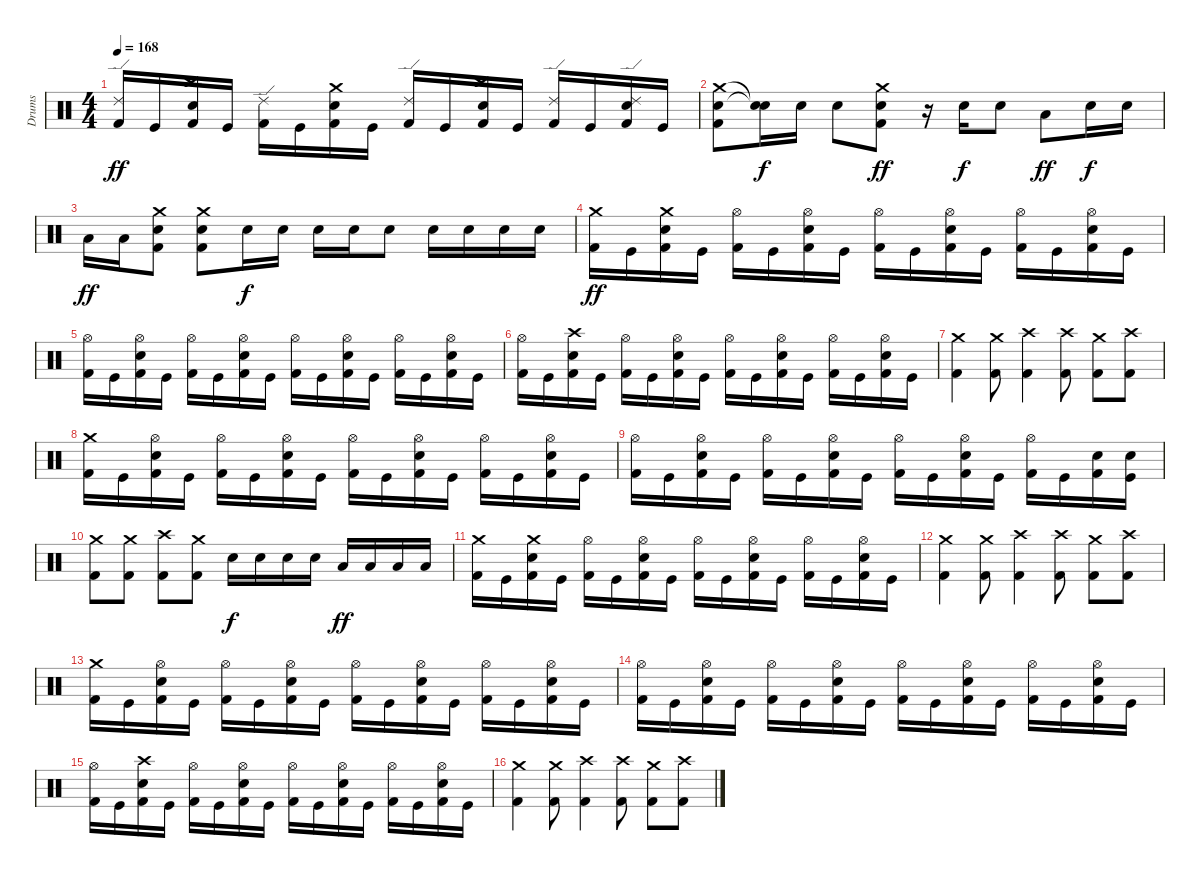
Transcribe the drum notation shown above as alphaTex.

\track ("Drums" "Drums") {instrument percussion}
\staff {score}
\articulation defaults
\ts (4 4)
\tempo 168
\clef neutral
\ks c
("Ride (edge) 2" "Kick (hit) 2").16{dy ff} "Kick (hit)".16 ("Crash high (hit)" "Electric Snare (hit)" "Kick (hit) 2").16 "Kick (hit)".16 ("Ride (edge) 2" "Kick (hit) 2").16 "Kick (hit)".16 ("Crash medium (hit)" "Electric Snare (hit)" "Kick (hit) 2").16 "Kick (hit)".16 ("Ride (edge) 2" "Kick (hit) 2").16 "Kick (hit)".16 ("Crash high (hit)" "Electric Snare (hit)" "Kick (hit) 2").16 "Kick (hit)".16 ("Ride (edge) 2" "Kick (hit) 2").16 "Kick (hit)".16 ("Ride (edge) 2" "Electric Snare (hit)" "Kick (hit) 2").16 "Kick (hit)".16 |
("Crash medium (hit)" "Electric Snare (hit)" "Kick (hit) 2").8 ("Snare (hit)"{t} "Snare (hit)"{t}).16{dy f} "Electric Snare (hit)".16 "Electric Snare (hit)".8 ("Crash medium (hit)" "Electric Snare (hit)" "Kick (hit) 2").8{dy ff} r.16 "Electric Snare (hit)".16{dy f} "Electric Snare (hit)".8 "Low Tom (hit)".8{dy ff} "Electric Snare (hit)".16{dy f} "Electric Snare (hit)".16 |
"Low Tom (hit)".16{dy ff} "Low Tom (hit)".16 ("Crash medium (hit)" "Electric Snare (hit)" "Kick (hit) 2").8 ("Crash medium (hit)" "Electric Snare (hit)" "Kick (hit) 2").8 "Electric Snare (hit)".16{dy f} "Electric Snare (hit)".16 "Electric Snare (hit)".16 "Electric Snare (hit)".16 "Electric Snare (hit)".8 "Electric Snare (hit)".16 "Electric Snare (hit)".16 "Electric Snare (hit)".16 "Electric Snare (hit)".16 |
("Crash medium (hit)" "Kick (hit) 2").16{dy ff} "Kick (hit)".16 ("Crash medium (hit)" "Electric Snare (hit)" "Kick (hit) 2").16 "Kick (hit)".16 ("Hi-Hat (open)" "Kick (hit) 2").16 "Kick (hit)".16 ("Hi-Hat (open)" "Electric Snare (hit)" "Kick (hit) 2").16 "Kick (hit)".16 ("Hi-Hat (open)" "Kick (hit) 2").16 "Kick (hit)".16 ("Hi-Hat (open)" "Electric Snare (hit)" "Kick (hit) 2").16 "Kick (hit)".16 ("Hi-Hat (open)" "Kick (hit) 2").16 "Kick (hit)".16 ("Hi-Hat (open)" "Electric Snare (hit)" "Kick (hit) 2").16 "Kick (hit)".16 |
("Hi-Hat (open)" "Kick (hit) 2").16 "Kick (hit)".16 ("Hi-Hat (open)" "Electric Snare (hit)" "Kick (hit) 2").16 "Kick (hit)".16 ("Hi-Hat (open)" "Kick (hit) 2").16 "Kick (hit)".16 ("Hi-Hat (open)" "Electric Snare (hit)" "Kick (hit) 2").16 "Kick (hit)".16 ("Hi-Hat (open)" "Kick (hit) 2").16 "Kick (hit)".16 ("Hi-Hat (open)" "Electric Snare (hit)" "Kick (hit) 2").16 "Kick (hit)".16 ("Hi-Hat (open)" "Kick (hit) 2").16 "Kick (hit)".16 ("Hi-Hat (open)" "Electric Snare (hit)" "Kick (hit) 2").16 "Kick (hit)".16 |
("Hi-Hat (open)" "Kick (hit) 2").16 "Kick (hit)".16 ("Crash high (hit)" "Electric Snare (hit)" "Kick (hit) 2").16 "Kick (hit)".16 ("Hi-Hat (open)" "Kick (hit) 2").16 "Kick (hit)".16 ("Hi-Hat (open)" "Electric Snare (hit)" "Kick (hit) 2").16 "Kick (hit)".16 ("Hi-Hat (open)" "Kick (hit) 2").16 "Kick (hit)".16 ("Hi-Hat (open)" "Electric Snare (hit)" "Kick (hit) 2").16 "Kick (hit)".16 ("Hi-Hat (open)" "Kick (hit) 2").16 "Kick (hit)".16 ("Hi-Hat (open)" "Electric Snare (hit)" "Kick (hit) 2").16 "Kick (hit)".16 |
("Crash medium (hit)" "Kick (hit) 2").4 ("Crash medium (hit)" "Kick (hit) 2").8 ("Crash high (hit)" "Kick (hit) 2").4 ("Crash high (hit)" "Kick (hit) 2").8 ("Crash medium (hit)" "Kick (hit) 2").8 ("Crash high (hit)" "Kick (hit) 2").8 |
("Crash medium (hit)" "Kick (hit) 2").16 "Kick (hit)".16 ("Hi-Hat (open)" "Electric Snare (hit)" "Kick (hit) 2").16 "Kick (hit)".16 ("Hi-Hat (open)" "Kick (hit) 2").16 "Kick (hit)".16 ("Hi-Hat (open)" "Electric Snare (hit)" "Kick (hit) 2").16 "Kick (hit)".16 ("Hi-Hat (open)" "Kick (hit) 2").16 "Kick (hit)".16 ("Hi-Hat (open)" "Electric Snare (hit)" "Kick (hit) 2").16 "Kick (hit)".16 ("Hi-Hat (open)" "Kick (hit) 2").16 "Kick (hit)".16 ("Hi-Hat (open)" "Electric Snare (hit)" "Kick (hit) 2").16 "Kick (hit)".16 |
("Hi-Hat (open)" "Kick (hit) 2").16 "Kick (hit)".16 ("Hi-Hat (open)" "Electric Snare (hit)" "Kick (hit) 2").16 "Kick (hit)".16 ("Hi-Hat (open)" "Kick (hit) 2").16 "Kick (hit)".16 ("Hi-Hat (open)" "Electric Snare (hit)" "Kick (hit) 2").16 "Kick (hit)".16 ("Hi-Hat (open)" "Kick (hit) 2").16 "Kick (hit)".16 ("Hi-Hat (open)" "Electric Snare (hit)" "Kick (hit) 2").16 "Kick (hit)".16 ("Hi-Hat (open)" "Kick (hit) 2").16 "Kick (hit)".16 ("Electric Snare (hit)" "Kick (hit) 2").16 ("Electric Snare (hit)" "Kick (hit)").16 |
("Crash medium (hit)" "Kick (hit) 2").8 ("Crash medium (hit)" "Kick (hit) 2").8 ("Crash high (hit)" "Kick (hit) 2").8 ("Crash medium (hit)" "Kick (hit) 2").8 "Electric Snare (hit)".16{dy f} "Electric Snare (hit)".16 "Electric Snare (hit)".16 "Electric Snare (hit)".16 "Low Tom (hit)".16{dy ff} "Low Tom (hit)".16 "Low Tom (hit)".16 "Low Tom (hit)".16 |
("Crash medium (hit)" "Kick (hit) 2").16 "Kick (hit)".16 ("Crash medium (hit)" "Electric Snare (hit)" "Kick (hit) 2").16 "Kick (hit)".16 ("Hi-Hat (open)" "Kick (hit) 2").16 "Kick (hit)".16 ("Hi-Hat (open)" "Electric Snare (hit)" "Kick (hit) 2").16 "Kick (hit)".16 ("Hi-Hat (open)" "Kick (hit) 2").16 "Kick (hit)".16 ("Hi-Hat (open)" "Electric Snare (hit)" "Kick (hit) 2").16 "Kick (hit)".16 ("Hi-Hat (open)" "Kick (hit) 2").16 "Kick (hit)".16 ("Hi-Hat (open)" "Electric Snare (hit)" "Kick (hit) 2").16 "Kick (hit)".16 |
("Crash medium (hit)" "Kick (hit) 2").4 ("Crash medium (hit)" "Kick (hit) 2").8 ("Crash high (hit)" "Kick (hit) 2").4 ("Crash high (hit)" "Kick (hit) 2").8 ("Crash medium (hit)" "Kick (hit) 2").8 ("Crash high (hit)" "Kick (hit) 2").8 |
("Crash medium (hit)" "Kick (hit) 2").16 "Kick (hit)".16 ("Hi-Hat (open)" "Electric Snare (hit)" "Kick (hit) 2").16 "Kick (hit)".16 ("Hi-Hat (open)" "Kick (hit) 2").16 "Kick (hit)".16 ("Hi-Hat (open)" "Electric Snare (hit)" "Kick (hit) 2").16 "Kick (hit)".16 ("Hi-Hat (open)" "Kick (hit) 2").16 "Kick (hit)".16 ("Hi-Hat (open)" "Electric Snare (hit)" "Kick (hit) 2").16 "Kick (hit)".16 ("Hi-Hat (open)" "Kick (hit) 2").16 "Kick (hit)".16 ("Hi-Hat (open)" "Electric Snare (hit)" "Kick (hit) 2").16 "Kick (hit)".16 |
("Hi-Hat (open)" "Kick (hit) 2").16 "Kick (hit)".16 ("Hi-Hat (open)" "Electric Snare (hit)" "Kick (hit) 2").16 "Kick (hit)".16 ("Hi-Hat (open)" "Kick (hit) 2").16 "Kick (hit)".16 ("Hi-Hat (open)" "Electric Snare (hit)" "Kick (hit) 2").16 "Kick (hit)".16 ("Hi-Hat (open)" "Kick (hit) 2").16 "Kick (hit)".16 ("Hi-Hat (open)" "Electric Snare (hit)" "Kick (hit) 2").16 "Kick (hit)".16 ("Hi-Hat (open)" "Kick (hit) 2").16 "Kick (hit)".16 ("Hi-Hat (open)" "Electric Snare (hit)" "Kick (hit) 2").16 "Kick (hit)".16 |
("Hi-Hat (open)" "Kick (hit) 2").16 "Kick (hit)".16 ("Crash high (hit)" "Electric Snare (hit)" "Kick (hit) 2").16 "Kick (hit)".16 ("Hi-Hat (open)" "Kick (hit) 2").16 "Kick (hit)".16 ("Hi-Hat (open)" "Electric Snare (hit)" "Kick (hit) 2").16 "Kick (hit)".16 ("Hi-Hat (open)" "Kick (hit) 2").16 "Kick (hit)".16 ("Hi-Hat (open)" "Electric Snare (hit)" "Kick (hit) 2").16 "Kick (hit)".16 ("Hi-Hat (open)" "Kick (hit) 2").16 "Kick (hit)".16 ("Hi-Hat (open)" "Electric Snare (hit)" "Kick (hit) 2").16 "Kick (hit)".16 |
("Crash medium (hit)" "Kick (hit) 2").4 ("Crash medium (hit)" "Kick (hit) 2").8 ("Crash high (hit)" "Kick (hit) 2").4 ("Crash high (hit)" "Kick (hit) 2").8 ("Crash medium (hit)" "Kick (hit) 2").8 ("Crash high (hit)" "Kick (hit) 2").8
